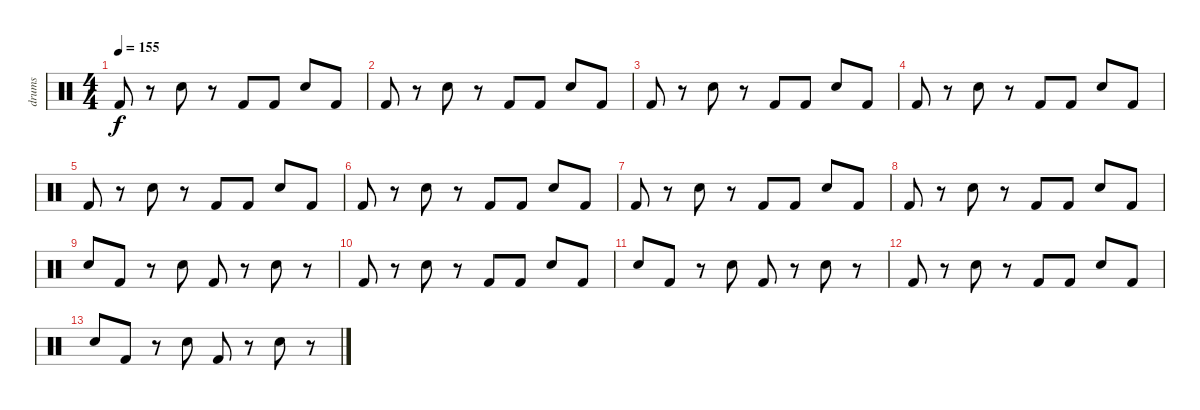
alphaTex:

\track ("drums" "drums") {instrument percussion}
\staff {score}
\articulation defaults
\ts (4 4)
\tempo 155
\clef neutral
\ks c "Kick (hit) 2".8{dy f}
r.8 "Snare (hit) 2".8 r.8 "Kick (hit) 2".8 "Kick (hit) 2".8 "Snare (hit) 2".8 "Kick (hit) 2".8 |
"Kick (hit) 2".8 r.8 "Snare (hit) 2".8 r.8 "Kick (hit) 2".8 "Kick (hit) 2".8 "Snare (hit) 2".8 "Kick (hit) 2".8 |
"Kick (hit) 2".8 r.8 "Snare (hit) 2".8 r.8 "Kick (hit) 2".8 "Kick (hit) 2".8 "Snare (hit) 2".8 "Kick (hit) 2".8 |
"Kick (hit) 2".8 r.8 "Snare (hit) 2".8 r.8 "Kick (hit) 2".8 "Kick (hit) 2".8 "Snare (hit) 2".8 "Kick (hit) 2".8 |
"Kick (hit) 2".8 r.8 "Snare (hit) 2".8 r.8 "Kick (hit) 2".8 "Kick (hit) 2".8 "Snare (hit) 2".8 "Kick (hit) 2".8 |
"Kick (hit) 2".8 r.8 "Snare (hit) 2".8 r.8 "Kick (hit) 2".8 "Kick (hit) 2".8 "Snare (hit) 2".8 "Kick (hit) 2".8 |
"Kick (hit) 2".8 r.8 "Snare (hit) 2".8 r.8 "Kick (hit) 2".8 "Kick (hit) 2".8 "Snare (hit) 2".8 "Kick (hit) 2".8 |
"Kick (hit) 2".8 r.8 "Snare (hit) 2".8 r.8 "Kick (hit) 2".8 "Kick (hit) 2".8 "Snare (hit) 2".8 "Kick (hit) 2".8 |
"Snare (hit) 2".8 "Kick (hit) 2".8 r.8 "Snare (hit) 2".8 "Kick (hit) 2".8 r.8 "Snare (hit) 2".8 r.8 |
"Kick (hit) 2".8 r.8 "Snare (hit) 2".8 r.8 "Kick (hit) 2".8 "Kick (hit) 2".8 "Snare (hit) 2".8 "Kick (hit) 2".8 |
"Snare (hit) 2".8 "Kick (hit) 2".8 r.8 "Snare (hit) 2".8 "Kick (hit) 2".8 r.8 "Snare (hit) 2".8 r.8 |
"Kick (hit) 2".8 r.8 "Snare (hit) 2".8 r.8 "Kick (hit) 2".8 "Kick (hit) 2".8 "Snare (hit) 2".8 "Kick (hit) 2".8 |
"Snare (hit) 2".8 "Kick (hit) 2".8 r.8 "Snare (hit) 2".8 "Kick (hit) 2".8 r.8 "Snare (hit) 2".8 r.8
